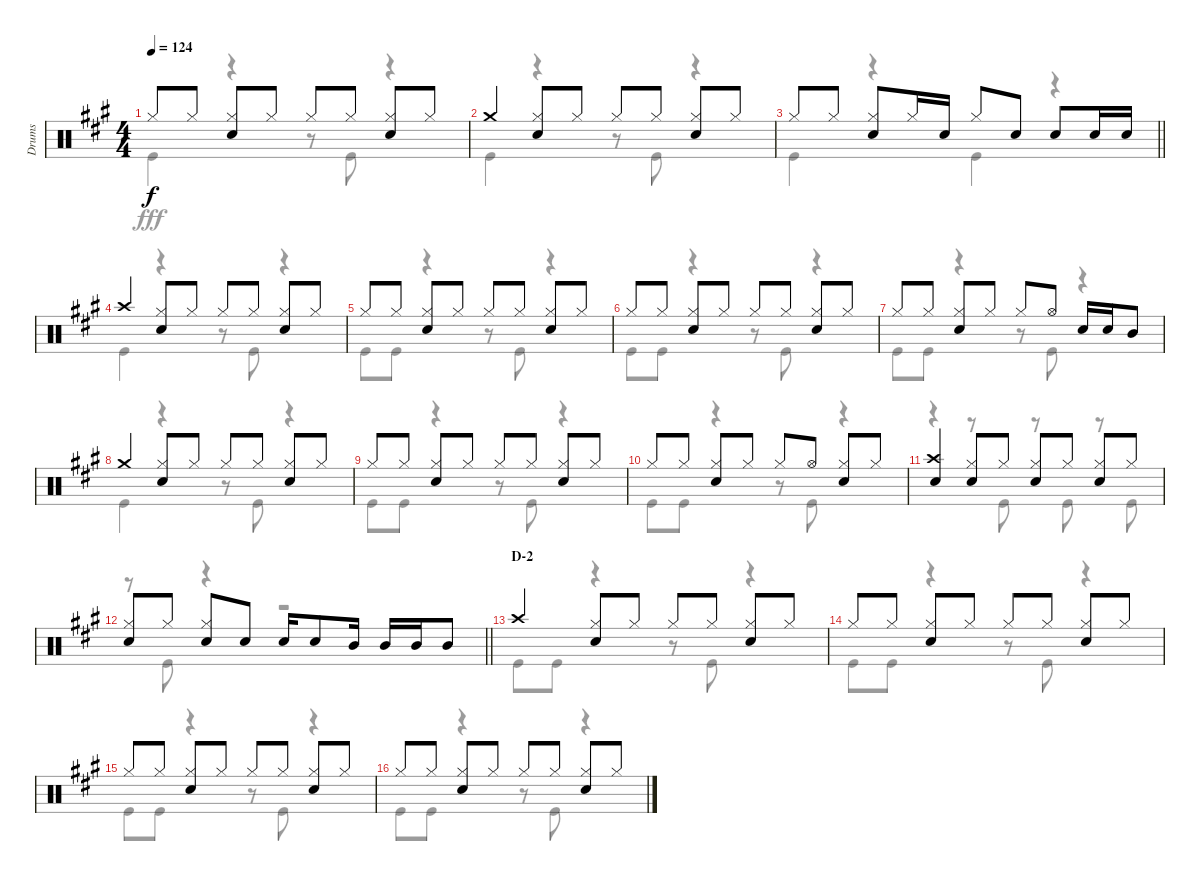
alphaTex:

\track ("Drums" "Drums") {instrument percussion}
\staff {score}
\articulation defaults
\voice
\ts (4 4)
\tempo 124
\clef neutral
\ks a "Hi-Hat (closed)".8{dy f} "Hi-Hat (closed)".8
("Hi-Hat (closed)" "Snare (hit) 2").8 "Hi-Hat (closed)".8 "Hi-Hat (closed)".8 "Hi-Hat (closed)".8 ("Hi-Hat (closed)" "Snare (hit) 2").8 "Hi-Hat (closed)".8 |
"Crash medium (hit)".4 ("Hi-Hat (closed)" "Snare (hit) 2").8 "Hi-Hat (closed)".8 "Hi-Hat (closed)".8 "Hi-Hat (closed)".8 ("Hi-Hat (closed)" "Snare (hit) 2").8 "Hi-Hat (closed)".8 |
\barLineRight lightlight "Hi-Hat (closed)".8 "Hi-Hat (closed)".8
("Hi-Hat (closed)" "Snare (hit) 2").8 "Hi-Hat (closed)".16 "Snare (hit) 2".16 "Hi-Hat (closed)".8 "Snare (hit) 2".8 "Snare (hit) 2".8 "Snare (hit) 2".16 "Snare (hit) 2".16 |
"Crash high (hit)".4 ("Hi-Hat (closed)" "Snare (hit) 2").8 "Hi-Hat (closed)".8 "Hi-Hat (closed)".8 "Hi-Hat (closed)".8 ("Hi-Hat (closed)" "Snare (hit) 2").8 "Hi-Hat (closed)".8 |
"Hi-Hat (closed)".8 "Hi-Hat (closed)".8 ("Hi-Hat (closed)" "Snare (hit) 2").8 "Hi-Hat (closed)".8 "Hi-Hat (closed)".8 "Hi-Hat (closed)".8 ("Hi-Hat (closed)" "Snare (hit) 2").8 "Hi-Hat (closed)".8 |
"Hi-Hat (closed)".8 "Hi-Hat (closed)".8 ("Hi-Hat (closed)" "Snare (hit) 2").8 "Hi-Hat (closed)".8 "Hi-Hat (closed)".8 "Hi-Hat (closed)".8 ("Hi-Hat (closed)" "Snare (hit) 2").8 "Hi-Hat (closed)".8 |
"Hi-Hat (closed)".8 "Hi-Hat (closed)".8 ("Hi-Hat (closed)" "Snare (hit) 2").8 "Hi-Hat (closed)".8 "Hi-Hat (closed)".8 "Hi-Hat (open)".8 "Snare (hit) 2".16 "Snare (hit) 2".16 "Mid Tom (hit)".8 |
"Crash medium (hit)".4 ("Hi-Hat (closed)" "Snare (hit) 2").8 "Hi-Hat (closed)".8 "Hi-Hat (closed)".8 "Hi-Hat (closed)".8 ("Hi-Hat (closed)" "Snare (hit) 2").8 "Hi-Hat (closed)".8 |
"Hi-Hat (closed)".8 "Hi-Hat (closed)".8 ("Hi-Hat (closed)" "Snare (hit) 2").8 "Hi-Hat (closed)".8 "Hi-Hat (closed)".8 "Hi-Hat (closed)".8 ("Hi-Hat (closed)" "Snare (hit) 2").8 "Hi-Hat (closed)".8 |
"Hi-Hat (closed)".8 "Hi-Hat (closed)".8 ("Hi-Hat (closed)" "Snare (hit) 2").8 "Hi-Hat (closed)".8 "Hi-Hat (closed)".8 "Hi-Hat (open)".8 ("Hi-Hat (closed)" "Snare (hit) 2").8 "Hi-Hat (closed)".8 |
("Crash high (hit)" "Snare (hit) 2").4 ("Hi-Hat (closed)" "Snare (hit) 2").8 "Hi-Hat (closed)".8 ("Hi-Hat (closed)" "Snare (hit) 2").8 "Hi-Hat (closed)".8 ("Hi-Hat (closed)" "Snare (hit) 2").8 "Hi-Hat (closed)".8 |
\barLineRight lightlight
("Hi-Hat (closed)" "Snare (hit) 2").8 "Hi-Hat (closed)".8 ("Hi-Hat (closed)" "Snare (hit) 2").8 "Snare (hit) 2".8 "Snare (hit) 2".16 "Snare (hit) 2".8 "Mid Tom (hit)".16 "Mid Tom (hit)".16 "Mid Tom (hit)".16 "Mid Tom (hit)".8 |
\section ("" "D-2")
"Crash high (hit)".4 ("Hi-Hat (closed)" "Snare (hit) 2").8 "Hi-Hat (closed)".8 "Hi-Hat (closed)".8 "Hi-Hat (closed)".8 ("Hi-Hat (closed)" "Snare (hit) 2").8 "Hi-Hat (closed)".8 |
"Hi-Hat (closed)".8 "Hi-Hat (closed)".8 ("Hi-Hat (closed)" "Snare (hit) 2").8 "Hi-Hat (closed)".8 "Hi-Hat (closed)".8 "Hi-Hat (closed)".8 ("Hi-Hat (closed)" "Snare (hit) 2").8 "Hi-Hat (closed)".8 |
"Hi-Hat (closed)".8 "Hi-Hat (closed)".8 ("Hi-Hat (closed)" "Snare (hit) 2").8 "Hi-Hat (closed)".8 "Hi-Hat (closed)".8 "Hi-Hat (closed)".8 ("Hi-Hat (closed)" "Snare (hit) 2").8 "Hi-Hat (closed)".8 |
"Hi-Hat (closed)".8 "Hi-Hat (closed)".8 ("Hi-Hat (closed)" "Snare (hit) 2").8 "Hi-Hat (closed)".8 "Hi-Hat (closed)".8 "Hi-Hat (closed)".8 ("Hi-Hat (closed)" "Snare (hit) 2").8 "Hi-Hat (closed)".8
\voice
\clef neutral
\ottava regular
\simile none
\ks a "Kick (hit)".4{dy fff}
r.4 r.8 "Kick (hit)".8 r.4 |
"Kick (hit)".4 r.4 r.8 "Kick (hit)".8 r.4 |
\barLineRight lightlight "Kick (hit)".4
r.4 "Kick (hit)".4 r.4 |
"Kick (hit)".4 r.4 r.8 "Kick (hit)".8 r.4 |
"Kick (hit)".8 "Kick (hit)".8 r.4 r.8 "Kick (hit)".8 r.4 |
"Kick (hit)".8 "Kick (hit)".8 r.4 r.8 "Kick (hit)".8 r.4 |
"Kick (hit)".8 "Kick (hit)".8 r.4 r.8 "Kick (hit)".8 r.4 |
"Kick (hit)".4 r.4 r.8 "Kick (hit)".8 r.4 |
"Kick (hit)".8 "Kick (hit)".8 r.4 r.8 "Kick (hit)".8 r.4 |
"Kick (hit)".8 "Kick (hit)".8 r.4 r.8 "Kick (hit)".8 r.4 |
r.4 r.8 "Kick (hit)".8 r.8 "Kick (hit)".8 r.8 "Kick (hit)".8 |
\barLineRight lightlight
r.8 "Kick (hit)".8 r.4 r.2 |
"Kick (hit)".8 "Kick (hit)".8 r.4 r.8 "Kick (hit)".8 r.4 |
"Kick (hit)".8 "Kick (hit)".8 r.4 r.8 "Kick (hit)".8 r.4 |
"Kick (hit)".8 "Kick (hit)".8 r.4 r.8 "Kick (hit)".8 r.4 |
"Kick (hit)".8 "Kick (hit)".8 r.4 r.8 "Kick (hit)".8 r.4
